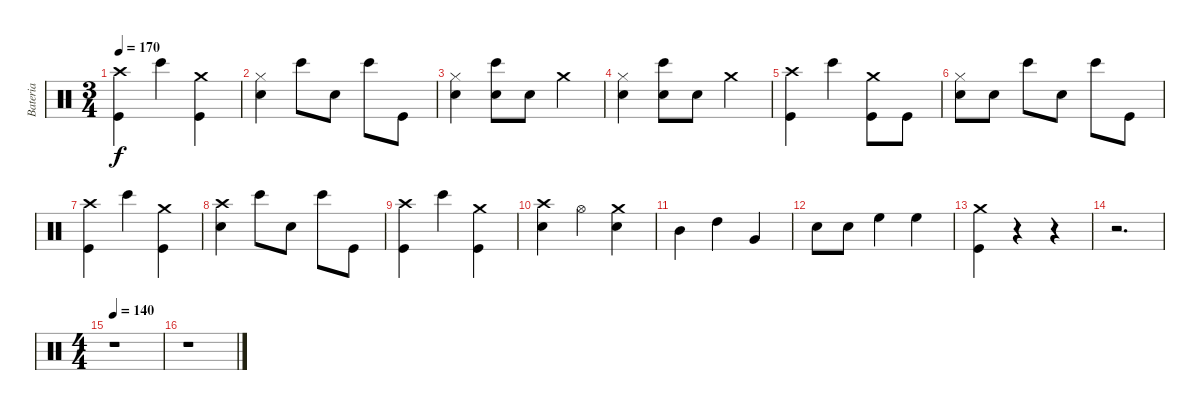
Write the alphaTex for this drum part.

\track ("Bateria" "Bateria") {instrument percussion}
\staff {score}
\articulation defaults
\ts (3 4)
\tempo 170
\clef neutral
\ks c
("Crash high (hit)" "Kick (hit)").4{dy f} "Bongo High (hit)".4 ("Crash medium (hit)" "Kick (hit)").4 |
("Hi-Hat (closed)" "Snare (hit) 2").4 "Bongo High (hit)".8 "Snare (hit) 2".8 "Bongo High (hit)".8 "Kick (hit)".8 |
("Hi-Hat (closed)" "Snare (hit) 2").4 ("Bongo High (hit)" "Snare (hit) 2").8 "Snare (hit) 2".8 "Crash medium (hit)".4 |
("Hi-Hat (closed)" "Snare (hit) 2").4 ("Bongo High (hit)" "Snare (hit) 2").8 "Snare (hit) 2".8 "Crash medium (hit)".4 |
("Crash high (hit)" "Kick (hit)").4 "Bongo High (hit)".4 ("Crash medium (hit)" "Kick (hit)").8 "Kick (hit)".8 |
("Hi-Hat (closed)" "Snare (hit) 2").8 "Snare (hit) 2".8 "Bongo High (hit)".8 "Snare (hit) 2".8 "Bongo High (hit)".8 "Kick (hit)".8 |
("Crash high (hit)" "Kick (hit)").4 "Bongo High (hit)".4 ("Crash medium (hit)" "Kick (hit)").4 |
("Crash high (hit)" "Snare (hit) 2").4 "Bongo High (hit)".8 "Snare (hit) 2".8 "Bongo High (hit)".8 "Kick (hit)".8 |
("Crash high (hit)" "Kick (hit)").4 "Bongo High (hit)".4 ("Crash medium (hit)" "Kick (hit)").4 |
("Crash high (hit)" "Snare (hit) 2").4 "Hi-Hat (open)".4 ("Crash medium (hit)" "Snare (hit) 2").4 |
"Mid Tom (hit)".4 "High Tom (hit)".4 "Very Low Tom (hit)".4 |
"Snare (hit) 2".8 "Snare (hit) 2".8 "High Floor Tom (hit)".4 "High Floor Tom (hit)".4 |
("Crash medium (hit)" "Kick (hit)").4 r.4 r.4 |
r.2{d} |
\ts (4 4)
\tempo 140
r.1 |
r.1
